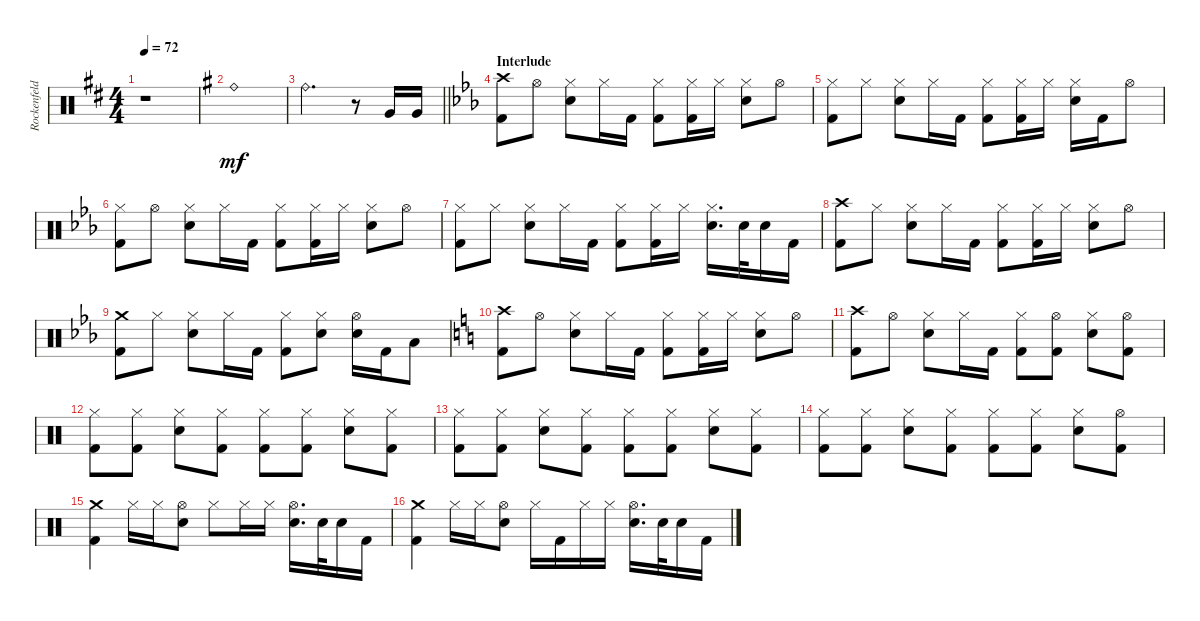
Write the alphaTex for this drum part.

\track ("Rockenfeld" "Rockenfeld") {instrument percussion}
\staff {score}
\articulation defaults
\ts (4 4)
\tempo 72
\clef neutral
\ks d
r.1{dy mf} |
\ks g "Ride (bell)".1
|
\barLineRight lightlight "Ride (bell)".2{d}
r.8 "Very Low Tom (hit)".16 "Very Low Tom (hit)".16 |
\section ("" "Interlude")
\ks eb
("Crash high (hit)" "Kick (hit) 2").8 "Hi-Hat (open)".8 ("Hi-Hat (closed)" "Electric Snare (hit)").8 "Hi-Hat (closed)".16 "Kick (hit) 2".16 ("Hi-Hat (closed)" "Kick (hit) 2").8 ("Hi-Hat (closed)" "Kick (hit) 2").16 "Hi-Hat (closed)".16 ("Hi-Hat (closed)" "Electric Snare (hit)").8 "Hi-Hat (open)".8 |
("Hi-Hat (closed)" "Kick (hit) 2").8 "Hi-Hat (closed)".8 ("Hi-Hat (closed)" "Electric Snare (hit)").8 "Hi-Hat (closed)".16 "Kick (hit) 2".16 ("Hi-Hat (closed)" "Kick (hit) 2").8 ("Hi-Hat (closed)" "Kick (hit) 2").16 "Hi-Hat (closed)".16 ("Hi-Hat (closed)" "Electric Snare (hit)").16 "Kick (hit) 2".16 "Hi-Hat (open)".8 |
("Hi-Hat (closed)" "Kick (hit) 2").8 "Hi-Hat (open)".8 ("Hi-Hat (closed)" "Electric Snare (hit)").8 "Hi-Hat (closed)".16 "Kick (hit) 2".16 ("Hi-Hat (closed)" "Kick (hit) 2").8 ("Hi-Hat (closed)" "Kick (hit) 2").16 "Hi-Hat (closed)".16 ("Hi-Hat (closed)" "Electric Snare (hit)").8 "Hi-Hat (open)".8 |
("Hi-Hat (closed)" "Kick (hit) 2").8 "Hi-Hat (closed)".8 ("Hi-Hat (closed)" "Electric Snare (hit)").8 "Hi-Hat (closed)".16 "Kick (hit) 2".16 ("Hi-Hat (closed)" "Kick (hit) 2").8 ("Hi-Hat (closed)" "Kick (hit) 2").16 "Hi-Hat (closed)".16 ("Hi-Hat (closed)" "Electric Snare (hit)").16{d} "Electric Snare (hit)".32 "Electric Snare (hit)".16 "Kick (hit) 2".16 |
("Crash high (hit)" "Kick (hit) 2").8 "Hi-Hat (closed)".8 ("Hi-Hat (closed)" "Electric Snare (hit)").8 "Hi-Hat (closed)".16 "Kick (hit) 2".16 ("Hi-Hat (closed)" "Kick (hit) 2").8 ("Hi-Hat (closed)" "Kick (hit) 2").16 "Hi-Hat (closed)".16 ("Hi-Hat (closed)" "Electric Snare (hit)").8 "Hi-Hat (open)".8 |
("Crash medium (hit)" "Kick (hit) 2").8 "Hi-Hat (closed)".8 ("Hi-Hat (closed)" "Electric Snare (hit)").8 "Hi-Hat (closed)".16 "Kick (hit) 2".16 ("Hi-Hat (closed)" "Kick (hit) 2").8 ("Hi-Hat (closed)" "Electric Snare (hit)").8 ("Hi-Hat (open)" "Electric Snare (hit)").16 "Kick (hit) 2".16 "Low Tom (hit)".8 |
\ks c
("Crash high (hit)" "Kick (hit) 2").8 "Hi-Hat (open)".8 ("Hi-Hat (closed)" "Electric Snare (hit)").8 "Hi-Hat (closed)".16 "Kick (hit) 2".16 ("Hi-Hat (closed)" "Kick (hit) 2").8 ("Hi-Hat (closed)" "Kick (hit) 2").16 "Hi-Hat (closed)".16 ("Hi-Hat (closed)" "Electric Snare (hit)").8 "Hi-Hat (open)".8 |
("Crash high (hit)" "Kick (hit) 2").8 "Hi-Hat (open)".8 ("Hi-Hat (closed)" "Electric Snare (hit)").8 "Hi-Hat (closed)".16 "Kick (hit) 2".16 ("Hi-Hat (closed)" "Kick (hit) 2").8 ("Hi-Hat (open)" "Kick (hit) 2").8 ("Hi-Hat (closed)" "Electric Snare (hit)").8 ("Hi-Hat (open)" "Kick (hit) 2").8 |
("Hi-Hat (closed)" "Kick (hit) 2").8 ("Hi-Hat (closed)" "Kick (hit) 2").8 ("Hi-Hat (closed)" "Electric Snare (hit)").8 ("Hi-Hat (closed)" "Kick (hit) 2").8 ("Hi-Hat (closed)" "Kick (hit) 2").8 ("Hi-Hat (closed)" "Kick (hit) 2").8 ("Hi-Hat (closed)" "Electric Snare (hit)").8 ("Hi-Hat (closed)" "Kick (hit) 2").8 |
("Hi-Hat (closed)" "Kick (hit) 2").8 ("Hi-Hat (closed)" "Kick (hit) 2").8 ("Hi-Hat (closed)" "Electric Snare (hit)").8 ("Hi-Hat (closed)" "Kick (hit) 2").8 ("Hi-Hat (closed)" "Kick (hit) 2").8 ("Hi-Hat (closed)" "Kick (hit) 2").8 ("Hi-Hat (closed)" "Electric Snare (hit)").8 ("Hi-Hat (closed)" "Kick (hit) 2").8 |
("Hi-Hat (closed)" "Kick (hit) 2").8 ("Hi-Hat (closed)" "Kick (hit) 2").8 ("Hi-Hat (closed)" "Electric Snare (hit)").8 ("Hi-Hat (closed)" "Kick (hit) 2").8 ("Hi-Hat (closed)" "Kick (hit) 2").8 ("Hi-Hat (closed)" "Kick (hit) 2").8 ("Hi-Hat (closed)" "Electric Snare (hit)").8 ("Hi-Hat (open)" "Kick (hit) 2").8 |
("Crash medium (hit)" "Kick (hit) 2").4 "Hi-Hat (closed)".16 "Hi-Hat (closed)".16 ("Hi-Hat (open)" "Electric Snare (hit)").8 "Hi-Hat (closed)".8 "Hi-Hat (closed)".16 "Hi-Hat (closed)".16 ("Hi-Hat (open)" "Electric Snare (hit)").16{d} "Electric Snare (hit)".32 "Electric Snare (hit)".16 "Kick (hit) 2".16 |
("Crash medium (hit)" "Kick (hit) 2").4 "Hi-Hat (closed)".16 "Hi-Hat (closed)".16 ("Hi-Hat (open)" "Electric Snare (hit)").8 "Hi-Hat (closed)".16 "Kick (hit) 2".16 "Hi-Hat (closed)".16 "Hi-Hat (closed)".16 ("Hi-Hat (open)" "Electric Snare (hit)").16{d} "Electric Snare (hit)".32 "Electric Snare (hit)".16 "Kick (hit) 2".16
